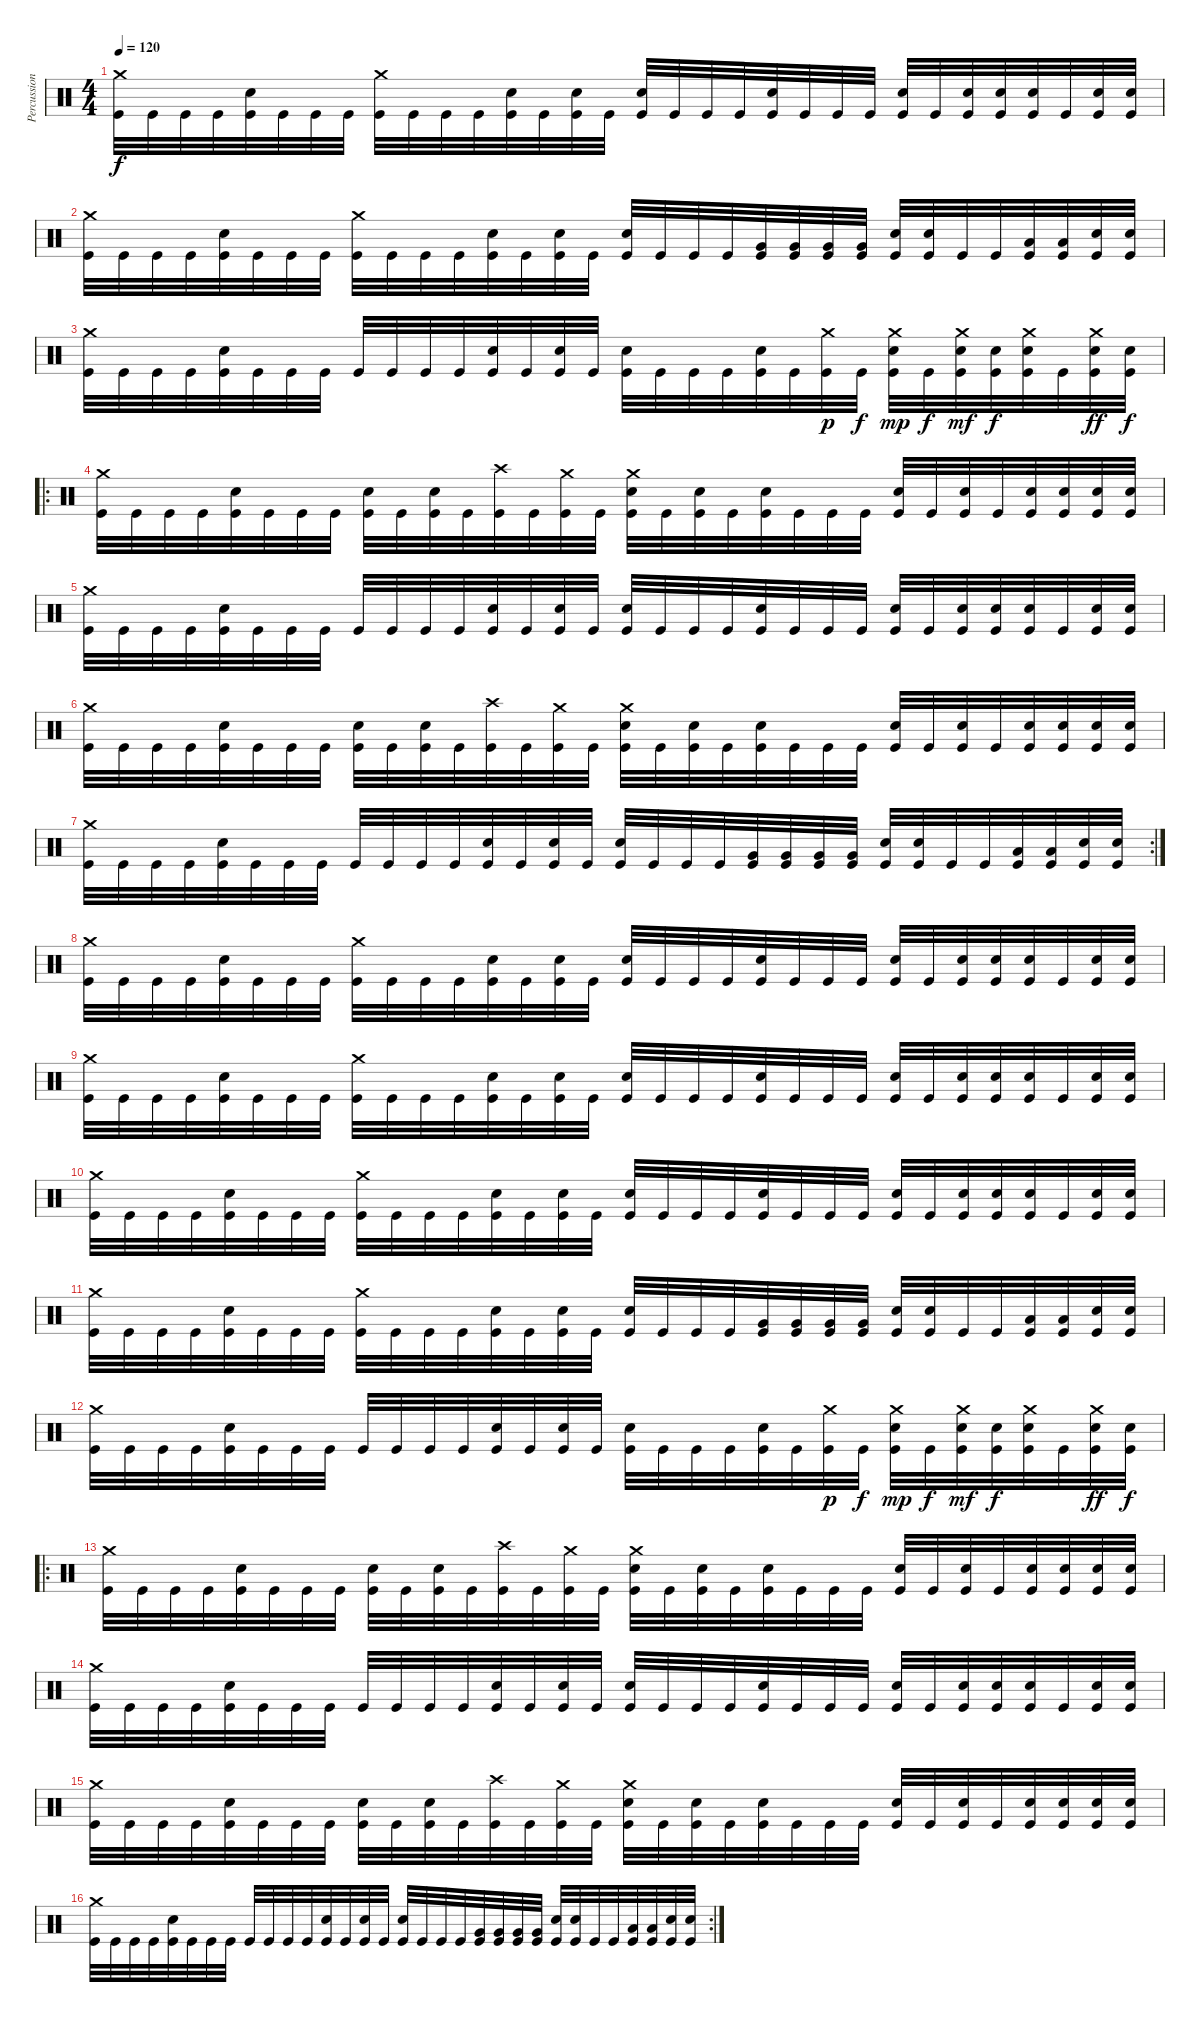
\track ("Percussion" "Percussion") {instrument percussion}
\staff {score}
\articulation defaults
\ts (4 4)
\tempo 120
\clef neutral
\ks c
("Crash medium (hit)" "Kick (hit)").32{dy f} "Kick (hit)".32 "Kick (hit)".32 "Kick (hit)".32 ("Electric Snare (hit)" "Kick (hit)").32 "Kick (hit)".32 "Kick (hit)".32 "Kick (hit)".32 ("Crash medium (hit)" "Kick (hit)").32 "Kick (hit)".32 "Kick (hit)".32 "Kick (hit)".32 ("Electric Snare (hit)" "Kick (hit)").32 "Kick (hit)".32 ("Electric Snare (hit)" "Kick (hit)").32 "Kick (hit)".32 ("Electric Snare (hit)" "Kick (hit)").32 "Kick (hit)".32 "Kick (hit)".32 "Kick (hit)".32 ("Electric Snare (hit)" "Kick (hit)").32 "Kick (hit)".32 "Kick (hit)".32 "Kick (hit)".32 ("Electric Snare (hit)" "Kick (hit)").32 "Kick (hit)".32 ("Electric Snare (hit)" "Kick (hit)").32 ("Electric Snare (hit)" "Kick (hit)").32 ("Electric Snare (hit)" "Kick (hit)").32 "Kick (hit)".32 ("Electric Snare (hit)" "Kick (hit)").32 ("Electric Snare (hit)" "Kick (hit)").32 |
("Crash medium (hit)" "Kick (hit)").32 "Kick (hit)".32 "Kick (hit)".32 "Kick (hit)".32 ("Electric Snare (hit)" "Kick (hit)").32 "Kick (hit)".32 "Kick (hit)".32 "Kick (hit)".32 ("Crash medium (hit)" "Kick (hit)").32 "Kick (hit)".32 "Kick (hit)".32 "Kick (hit)".32 ("Electric Snare (hit)" "Kick (hit)").32 "Kick (hit)".32 ("Electric Snare (hit)" "Kick (hit)").32 "Kick (hit)".32 ("Electric Snare (hit)" "Kick (hit)").32 "Kick (hit)".32 "Kick (hit)".32 "Kick (hit)".32 ("Very Low Tom (hit)" "Kick (hit)").32 ("Very Low Tom (hit)" "Kick (hit)").32 ("Very Low Tom (hit)" "Kick (hit)").32 ("Very Low Tom (hit)" "Kick (hit)").32 ("Snare (hit) 2" "Kick (hit)").32 ("Snare (hit) 2" "Kick (hit)").32 "Kick (hit)".32 "Kick (hit)".32 ("Low Floor Tom (hit)" "Kick (hit)").32 ("Low Floor Tom (hit)" "Kick (hit)").32 ("Electric Snare (hit)" "Kick (hit)").32 ("Electric Snare (hit)" "Kick (hit)").32 |
("Crash medium (hit)" "Kick (hit)").32 "Kick (hit)".32 "Kick (hit)".32 "Kick (hit)".32 ("Electric Snare (hit)" "Kick (hit)").32 "Kick (hit)".32 "Kick (hit)".32 "Kick (hit)".32 "Kick (hit)".32 "Kick (hit)".32 "Kick (hit)".32 "Kick (hit)".32 ("Electric Snare (hit)" "Kick (hit)").32 "Kick (hit)".32 ("Electric Snare (hit)" "Kick (hit)").32 "Kick (hit)".32 ("Electric Snare (hit)" "Kick (hit)").32 "Kick (hit)".32 "Kick (hit)".32 "Kick (hit)".32 ("Electric Snare (hit)" "Kick (hit)").32 "Kick (hit)".32 ("Crash medium (hit)" "Kick (hit)").32{dy p} "Kick (hit)".32{dy f} ("Crash medium (hit)" "Electric Snare (hit)" "Kick (hit)").32{dy mp} "Kick (hit)".32{dy f} ("Crash medium (hit)" "Electric Snare (hit)" "Kick (hit)").32{dy mf} ("Electric Snare (hit)" "Kick (hit)").32{dy f} ("Crash medium (hit)" "Electric Snare (hit)" "Kick (hit)").32 "Kick (hit)".32 ("Crash medium (hit)" "Electric Snare (hit)" "Kick (hit)").32{dy ff} ("Electric Snare (hit)" "Kick (hit)").32{dy f} |
\ro
("Crash medium (hit)" "Kick (hit)").32 "Kick (hit)".32 "Kick (hit)".32 "Kick (hit)".32 ("Electric Snare (hit)" "Kick (hit)").32 "Kick (hit)".32 "Kick (hit)".32 "Kick (hit)".32 ("Electric Snare (hit)" "Kick (hit)").32 "Kick (hit)".32 ("Electric Snare (hit)" "Kick (hit)").32 "Kick (hit)".32 ("Crash high (hit)" "Kick (hit)").32 "Kick (hit)".32 ("Crash medium (hit)" "Kick (hit)").32 "Kick (hit)".32 ("Crash medium (hit)" "Electric Snare (hit)" "Kick (hit)").32 "Kick (hit)".32 ("Electric Snare (hit)" "Kick (hit)").32 "Kick (hit)".32 ("Electric Snare (hit)" "Kick (hit)").32 "Kick (hit)".32 "Kick (hit)".32 "Kick (hit)".32 ("Electric Snare (hit)" "Kick (hit)").32 "Kick (hit)".32 ("Electric Snare (hit)" "Kick (hit)").32 "Kick (hit)".32 ("Electric Snare (hit)" "Kick (hit)").32 ("Electric Snare (hit)" "Kick (hit)").32 ("Electric Snare (hit)" "Kick (hit)").32 ("Electric Snare (hit)" "Kick (hit)").32 |
("Crash medium (hit)" "Kick (hit)").32 "Kick (hit)".32 "Kick (hit)".32 "Kick (hit)".32 ("Electric Snare (hit)" "Kick (hit)").32 "Kick (hit)".32 "Kick (hit)".32 "Kick (hit)".32 "Kick (hit)".32 "Kick (hit)".32 "Kick (hit)".32 "Kick (hit)".32 ("Electric Snare (hit)" "Kick (hit)").32 "Kick (hit)".32 ("Electric Snare (hit)" "Kick (hit)").32 "Kick (hit)".32 ("Electric Snare (hit)" "Kick (hit)").32 "Kick (hit)".32 "Kick (hit)".32 "Kick (hit)".32 ("Electric Snare (hit)" "Kick (hit)").32 "Kick (hit)".32 "Kick (hit)".32 "Kick (hit)".32 ("Electric Snare (hit)" "Kick (hit)").32 "Kick (hit)".32 ("Electric Snare (hit)" "Kick (hit)").32 ("Electric Snare (hit)" "Kick (hit)").32 ("Electric Snare (hit)" "Kick (hit)").32 "Kick (hit)".32 ("Electric Snare (hit)" "Kick (hit)").32 ("Electric Snare (hit)" "Kick (hit)").32 |
("Crash medium (hit)" "Kick (hit)").32 "Kick (hit)".32 "Kick (hit)".32 "Kick (hit)".32 ("Electric Snare (hit)" "Kick (hit)").32 "Kick (hit)".32 "Kick (hit)".32 "Kick (hit)".32 ("Electric Snare (hit)" "Kick (hit)").32 "Kick (hit)".32 ("Electric Snare (hit)" "Kick (hit)").32 "Kick (hit)".32 ("Crash high (hit)" "Kick (hit)").32 "Kick (hit)".32 ("Crash medium (hit)" "Kick (hit)").32 "Kick (hit)".32 ("Crash medium (hit)" "Electric Snare (hit)" "Kick (hit)").32 "Kick (hit)".32 ("Electric Snare (hit)" "Kick (hit)").32 "Kick (hit)".32 ("Electric Snare (hit)" "Kick (hit)").32 "Kick (hit)".32 "Kick (hit)".32 "Kick (hit)".32 ("Electric Snare (hit)" "Kick (hit)").32 "Kick (hit)".32 ("Electric Snare (hit)" "Kick (hit)").32 "Kick (hit)".32 ("Electric Snare (hit)" "Kick (hit)").32 ("Electric Snare (hit)" "Kick (hit)").32 ("Electric Snare (hit)" "Kick (hit)").32 ("Electric Snare (hit)" "Kick (hit)").32 |
\rc 2
("Crash medium (hit)" "Kick (hit)").32 "Kick (hit)".32 "Kick (hit)".32 "Kick (hit)".32 ("Electric Snare (hit)" "Kick (hit)").32 "Kick (hit)".32 "Kick (hit)".32 "Kick (hit)".32 "Kick (hit)".32 "Kick (hit)".32 "Kick (hit)".32 "Kick (hit)".32 ("Electric Snare (hit)" "Kick (hit)").32 "Kick (hit)".32 ("Electric Snare (hit)" "Kick (hit)").32 "Kick (hit)".32 ("Electric Snare (hit)" "Kick (hit)").32 "Kick (hit)".32 "Kick (hit)".32 "Kick (hit)".32 ("Very Low Tom (hit)" "Kick (hit)").32 ("Very Low Tom (hit)" "Kick (hit)").32 ("Very Low Tom (hit)" "Kick (hit)").32 ("Very Low Tom (hit)" "Kick (hit)").32 ("Snare (hit) 2" "Kick (hit)").32 ("Snare (hit) 2" "Kick (hit)").32 "Kick (hit)".32 "Kick (hit)".32 ("Low Floor Tom (hit)" "Kick (hit)").32 ("Low Floor Tom (hit)" "Kick (hit)").32 ("Electric Snare (hit)" "Kick (hit)").32 ("Electric Snare (hit)" "Kick (hit)").32 |
("Crash medium (hit)" "Kick (hit)").32 "Kick (hit)".32 "Kick (hit)".32 "Kick (hit)".32 ("Electric Snare (hit)" "Kick (hit)").32 "Kick (hit)".32 "Kick (hit)".32 "Kick (hit)".32 ("Crash medium (hit)" "Kick (hit)").32 "Kick (hit)".32 "Kick (hit)".32 "Kick (hit)".32 ("Electric Snare (hit)" "Kick (hit)").32 "Kick (hit)".32 ("Electric Snare (hit)" "Kick (hit)").32 "Kick (hit)".32 ("Electric Snare (hit)" "Kick (hit)").32 "Kick (hit)".32 "Kick (hit)".32 "Kick (hit)".32 ("Electric Snare (hit)" "Kick (hit)").32 "Kick (hit)".32 "Kick (hit)".32 "Kick (hit)".32 ("Electric Snare (hit)" "Kick (hit)").32 "Kick (hit)".32 ("Electric Snare (hit)" "Kick (hit)").32 ("Electric Snare (hit)" "Kick (hit)").32 ("Electric Snare (hit)" "Kick (hit)").32 "Kick (hit)".32 ("Electric Snare (hit)" "Kick (hit)").32 ("Electric Snare (hit)" "Kick (hit)").32 |
("Crash medium (hit)" "Kick (hit)").32 "Kick (hit)".32 "Kick (hit)".32 "Kick (hit)".32 ("Electric Snare (hit)" "Kick (hit)").32 "Kick (hit)".32 "Kick (hit)".32 "Kick (hit)".32 ("Crash medium (hit)" "Kick (hit)").32 "Kick (hit)".32 "Kick (hit)".32 "Kick (hit)".32 ("Electric Snare (hit)" "Kick (hit)").32 "Kick (hit)".32 ("Electric Snare (hit)" "Kick (hit)").32 "Kick (hit)".32 ("Electric Snare (hit)" "Kick (hit)").32 "Kick (hit)".32 "Kick (hit)".32 "Kick (hit)".32 ("Electric Snare (hit)" "Kick (hit)").32 "Kick (hit)".32 "Kick (hit)".32 "Kick (hit)".32 ("Electric Snare (hit)" "Kick (hit)").32 "Kick (hit)".32 ("Electric Snare (hit)" "Kick (hit)").32 ("Electric Snare (hit)" "Kick (hit)").32 ("Electric Snare (hit)" "Kick (hit)").32 "Kick (hit)".32 ("Electric Snare (hit)" "Kick (hit)").32 ("Electric Snare (hit)" "Kick (hit)").32 |
("Crash medium (hit)" "Kick (hit)").32 "Kick (hit)".32 "Kick (hit)".32 "Kick (hit)".32 ("Electric Snare (hit)" "Kick (hit)").32 "Kick (hit)".32 "Kick (hit)".32 "Kick (hit)".32 ("Crash medium (hit)" "Kick (hit)").32 "Kick (hit)".32 "Kick (hit)".32 "Kick (hit)".32 ("Electric Snare (hit)" "Kick (hit)").32 "Kick (hit)".32 ("Electric Snare (hit)" "Kick (hit)").32 "Kick (hit)".32 ("Electric Snare (hit)" "Kick (hit)").32 "Kick (hit)".32 "Kick (hit)".32 "Kick (hit)".32 ("Electric Snare (hit)" "Kick (hit)").32 "Kick (hit)".32 "Kick (hit)".32 "Kick (hit)".32 ("Electric Snare (hit)" "Kick (hit)").32 "Kick (hit)".32 ("Electric Snare (hit)" "Kick (hit)").32 ("Electric Snare (hit)" "Kick (hit)").32 ("Electric Snare (hit)" "Kick (hit)").32 "Kick (hit)".32 ("Electric Snare (hit)" "Kick (hit)").32 ("Electric Snare (hit)" "Kick (hit)").32 |
("Crash medium (hit)" "Kick (hit)").32 "Kick (hit)".32 "Kick (hit)".32 "Kick (hit)".32 ("Electric Snare (hit)" "Kick (hit)").32 "Kick (hit)".32 "Kick (hit)".32 "Kick (hit)".32 ("Crash medium (hit)" "Kick (hit)").32 "Kick (hit)".32 "Kick (hit)".32 "Kick (hit)".32 ("Electric Snare (hit)" "Kick (hit)").32 "Kick (hit)".32 ("Electric Snare (hit)" "Kick (hit)").32 "Kick (hit)".32 ("Electric Snare (hit)" "Kick (hit)").32 "Kick (hit)".32 "Kick (hit)".32 "Kick (hit)".32 ("Very Low Tom (hit)" "Kick (hit)").32 ("Very Low Tom (hit)" "Kick (hit)").32 ("Very Low Tom (hit)" "Kick (hit)").32 ("Very Low Tom (hit)" "Kick (hit)").32 ("Snare (hit) 2" "Kick (hit)").32 ("Snare (hit) 2" "Kick (hit)").32 "Kick (hit)".32 "Kick (hit)".32 ("Low Floor Tom (hit)" "Kick (hit)").32 ("Low Floor Tom (hit)" "Kick (hit)").32 ("Electric Snare (hit)" "Kick (hit)").32 ("Electric Snare (hit)" "Kick (hit)").32 |
("Crash medium (hit)" "Kick (hit)").32 "Kick (hit)".32 "Kick (hit)".32 "Kick (hit)".32 ("Electric Snare (hit)" "Kick (hit)").32 "Kick (hit)".32 "Kick (hit)".32 "Kick (hit)".32 "Kick (hit)".32 "Kick (hit)".32 "Kick (hit)".32 "Kick (hit)".32 ("Electric Snare (hit)" "Kick (hit)").32 "Kick (hit)".32 ("Electric Snare (hit)" "Kick (hit)").32 "Kick (hit)".32 ("Electric Snare (hit)" "Kick (hit)").32 "Kick (hit)".32 "Kick (hit)".32 "Kick (hit)".32 ("Electric Snare (hit)" "Kick (hit)").32 "Kick (hit)".32 ("Crash medium (hit)" "Kick (hit)").32{dy p} "Kick (hit)".32{dy f} ("Crash medium (hit)" "Electric Snare (hit)" "Kick (hit)").32{dy mp} "Kick (hit)".32{dy f} ("Crash medium (hit)" "Electric Snare (hit)" "Kick (hit)").32{dy mf} ("Electric Snare (hit)" "Kick (hit)").32{dy f} ("Crash medium (hit)" "Electric Snare (hit)" "Kick (hit)").32 "Kick (hit)".32 ("Crash medium (hit)" "Electric Snare (hit)" "Kick (hit)").32{dy ff} ("Electric Snare (hit)" "Kick (hit)").32{dy f} |
\ro
("Crash medium (hit)" "Kick (hit)").32 "Kick (hit)".32 "Kick (hit)".32 "Kick (hit)".32 ("Electric Snare (hit)" "Kick (hit)").32 "Kick (hit)".32 "Kick (hit)".32 "Kick (hit)".32 ("Electric Snare (hit)" "Kick (hit)").32 "Kick (hit)".32 ("Electric Snare (hit)" "Kick (hit)").32 "Kick (hit)".32 ("Crash high (hit)" "Kick (hit)").32 "Kick (hit)".32 ("Crash medium (hit)" "Kick (hit)").32 "Kick (hit)".32 ("Crash medium (hit)" "Electric Snare (hit)" "Kick (hit)").32 "Kick (hit)".32 ("Electric Snare (hit)" "Kick (hit)").32 "Kick (hit)".32 ("Electric Snare (hit)" "Kick (hit)").32 "Kick (hit)".32 "Kick (hit)".32 "Kick (hit)".32 ("Electric Snare (hit)" "Kick (hit)").32 "Kick (hit)".32 ("Electric Snare (hit)" "Kick (hit)").32 "Kick (hit)".32 ("Electric Snare (hit)" "Kick (hit)").32 ("Electric Snare (hit)" "Kick (hit)").32 ("Electric Snare (hit)" "Kick (hit)").32 ("Electric Snare (hit)" "Kick (hit)").32 |
("Crash medium (hit)" "Kick (hit)").32 "Kick (hit)".32 "Kick (hit)".32 "Kick (hit)".32 ("Electric Snare (hit)" "Kick (hit)").32 "Kick (hit)".32 "Kick (hit)".32 "Kick (hit)".32 "Kick (hit)".32 "Kick (hit)".32 "Kick (hit)".32 "Kick (hit)".32 ("Electric Snare (hit)" "Kick (hit)").32 "Kick (hit)".32 ("Electric Snare (hit)" "Kick (hit)").32 "Kick (hit)".32 ("Electric Snare (hit)" "Kick (hit)").32 "Kick (hit)".32 "Kick (hit)".32 "Kick (hit)".32 ("Electric Snare (hit)" "Kick (hit)").32 "Kick (hit)".32 "Kick (hit)".32 "Kick (hit)".32 ("Electric Snare (hit)" "Kick (hit)").32 "Kick (hit)".32 ("Electric Snare (hit)" "Kick (hit)").32 ("Electric Snare (hit)" "Kick (hit)").32 ("Electric Snare (hit)" "Kick (hit)").32 "Kick (hit)".32 ("Electric Snare (hit)" "Kick (hit)").32 ("Electric Snare (hit)" "Kick (hit)").32 |
("Crash medium (hit)" "Kick (hit)").32 "Kick (hit)".32 "Kick (hit)".32 "Kick (hit)".32 ("Electric Snare (hit)" "Kick (hit)").32 "Kick (hit)".32 "Kick (hit)".32 "Kick (hit)".32 ("Electric Snare (hit)" "Kick (hit)").32 "Kick (hit)".32 ("Electric Snare (hit)" "Kick (hit)").32 "Kick (hit)".32 ("Crash high (hit)" "Kick (hit)").32 "Kick (hit)".32 ("Crash medium (hit)" "Kick (hit)").32 "Kick (hit)".32 ("Crash medium (hit)" "Electric Snare (hit)" "Kick (hit)").32 "Kick (hit)".32 ("Electric Snare (hit)" "Kick (hit)").32 "Kick (hit)".32 ("Electric Snare (hit)" "Kick (hit)").32 "Kick (hit)".32 "Kick (hit)".32 "Kick (hit)".32 ("Electric Snare (hit)" "Kick (hit)").32 "Kick (hit)".32 ("Electric Snare (hit)" "Kick (hit)").32 "Kick (hit)".32 ("Electric Snare (hit)" "Kick (hit)").32 ("Electric Snare (hit)" "Kick (hit)").32 ("Electric Snare (hit)" "Kick (hit)").32 ("Electric Snare (hit)" "Kick (hit)").32 |
\rc 2
("Crash medium (hit)" "Kick (hit)").32 "Kick (hit)".32 "Kick (hit)".32 "Kick (hit)".32 ("Electric Snare (hit)" "Kick (hit)").32 "Kick (hit)".32 "Kick (hit)".32 "Kick (hit)".32 "Kick (hit)".32 "Kick (hit)".32 "Kick (hit)".32 "Kick (hit)".32 ("Electric Snare (hit)" "Kick (hit)").32 "Kick (hit)".32 ("Electric Snare (hit)" "Kick (hit)").32 "Kick (hit)".32 ("Electric Snare (hit)" "Kick (hit)").32 "Kick (hit)".32 "Kick (hit)".32 "Kick (hit)".32 ("Very Low Tom (hit)" "Kick (hit)").32 ("Very Low Tom (hit)" "Kick (hit)").32 ("Very Low Tom (hit)" "Kick (hit)").32 ("Very Low Tom (hit)" "Kick (hit)").32 ("Snare (hit) 2" "Kick (hit)").32 ("Snare (hit) 2" "Kick (hit)").32 "Kick (hit)".32 "Kick (hit)".32 ("Low Floor Tom (hit)" "Kick (hit)").32 ("Low Floor Tom (hit)" "Kick (hit)").32 ("Electric Snare (hit)" "Kick (hit)").32 ("Electric Snare (hit)" "Kick (hit)").32
